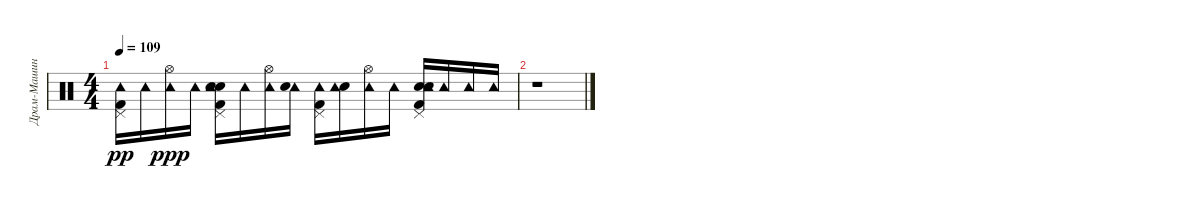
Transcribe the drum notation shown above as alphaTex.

\track ("Драм-Машина" "Драм-Машин") {instrument percussion}
\staff {score}
\articulation defaults
\ts (4 4)
\tempo 109
\clef neutral
\ks c
("Kick (hit) 2" "Tambourine (hit)" "Pedal Hi-Hat (hit)").16{dy pp} "Tambourine (hit)".16 ("Tambourine (hit)" "Hi-Hat (open)").16{dy ppp} "Tambourine (hit)".16 ("Kick (hit) 2" "Pedal Hi-Hat (hit)" "Electric Snare (hit)" "Tambourine (hit)" "Snare (hit) 2").16 "Tambourine (hit)".16 ("Tambourine (hit)" "Hi-Hat (open)").16 ("Tambourine (hit)" "Electric Snare (hit)").16 ("Kick (hit) 2" "Pedal Hi-Hat (hit)" "Tambourine (hit)").16 ("Electric Snare (hit)" "Tambourine (hit)").16 ("Tambourine (hit)" "Hi-Hat (open)").16 "Tambourine (hit)".16 ("Electric Snare (hit)" "Pedal Hi-Hat (hit)" "Kick (hit) 2" "Snare (hit) 2" "Tambourine (hit)").16 "Tambourine (hit)".16 "Tambourine (hit)".16 "Tambourine (hit)".16 |
r.1
